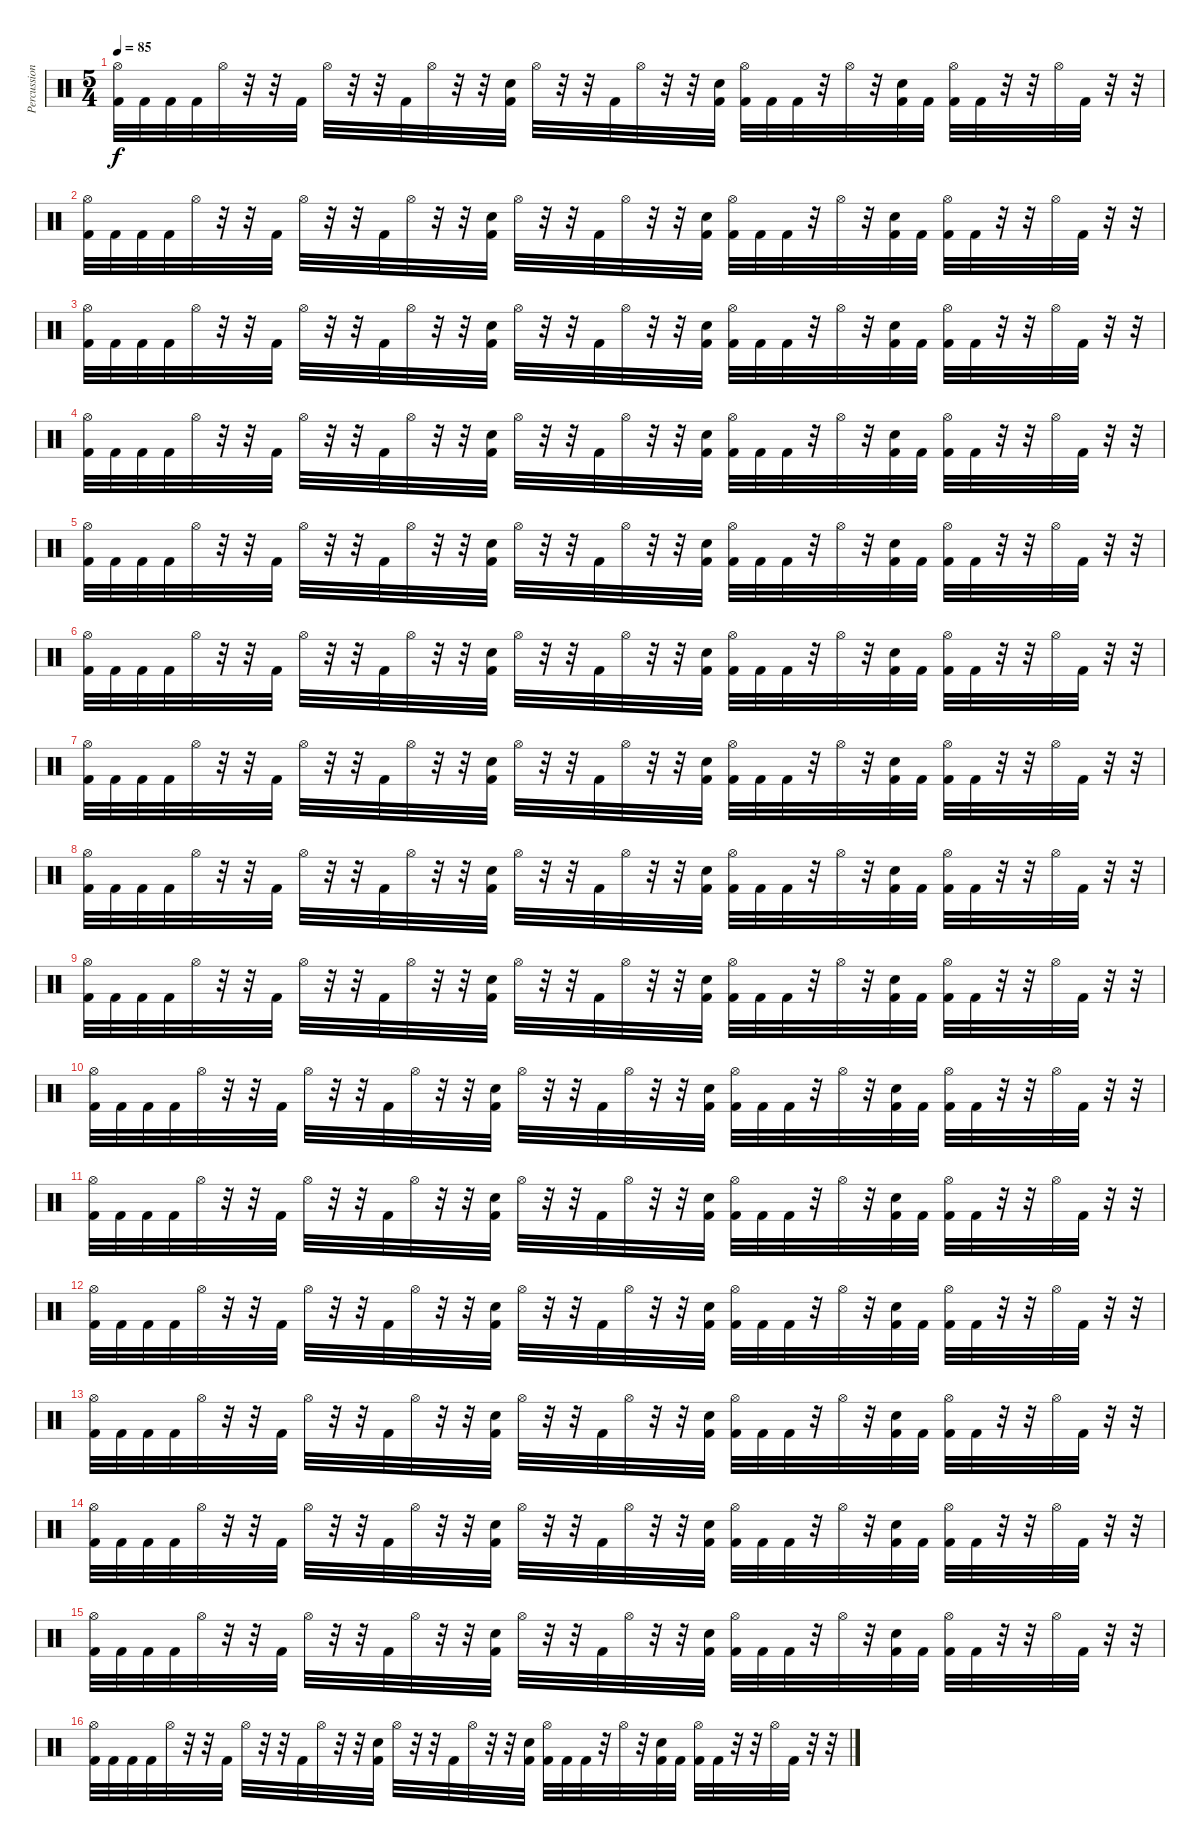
\track ("Percussion" "Percussion") {instrument percussion}
\staff {score}
\articulation defaults
\ts (5 4)
\tempo 85
\clef neutral
\ks c
("Hi-Hat (open)" "Kick (hit) 2").32{dy f} "Kick (hit) 2".32 "Kick (hit) 2".32 "Kick (hit) 2".32 "Hi-Hat (open)".32 r.32 r.32 "Kick (hit) 2".32 "Hi-Hat (open)".32 r.32 r.32 "Kick (hit) 2".32 "Hi-Hat (open)".32 r.32 r.32 ("Electric Snare (hit)" "Kick (hit) 2").32 "Hi-Hat (open)".32 r.32 r.32 "Kick (hit) 2".32 "Hi-Hat (open)".32 r.32 r.32 ("Electric Snare (hit)" "Kick (hit) 2").32 ("Hi-Hat (open)" "Kick (hit) 2").32 "Kick (hit) 2".32 "Kick (hit) 2".32 r.32 "Hi-Hat (open)".32 r.32 ("Electric Snare (hit)" "Kick (hit) 2").32 "Kick (hit) 2".32 ("Hi-Hat (open)" "Kick (hit) 2").32 "Kick (hit) 2".32 r.32 r.32 "Hi-Hat (open)".32 "Kick (hit) 2".32 r.32 r.32 |
("Hi-Hat (open)" "Kick (hit) 2").32 "Kick (hit) 2".32 "Kick (hit) 2".32 "Kick (hit) 2".32 "Hi-Hat (open)".32 r.32 r.32 "Kick (hit) 2".32 "Hi-Hat (open)".32 r.32 r.32 "Kick (hit) 2".32 "Hi-Hat (open)".32 r.32 r.32 ("Electric Snare (hit)" "Kick (hit) 2").32 "Hi-Hat (open)".32 r.32 r.32 "Kick (hit) 2".32 "Hi-Hat (open)".32 r.32 r.32 ("Electric Snare (hit)" "Kick (hit) 2").32 ("Hi-Hat (open)" "Kick (hit) 2").32 "Kick (hit) 2".32 "Kick (hit) 2".32 r.32 "Hi-Hat (open)".32 r.32 ("Electric Snare (hit)" "Kick (hit) 2").32 "Kick (hit) 2".32 ("Hi-Hat (open)" "Kick (hit) 2").32 "Kick (hit) 2".32 r.32 r.32 "Hi-Hat (open)".32 "Kick (hit) 2".32 r.32 r.32 |
("Hi-Hat (open)" "Kick (hit) 2").32 "Kick (hit) 2".32 "Kick (hit) 2".32 "Kick (hit) 2".32 "Hi-Hat (open)".32 r.32 r.32 "Kick (hit) 2".32 "Hi-Hat (open)".32 r.32 r.32 "Kick (hit) 2".32 "Hi-Hat (open)".32 r.32 r.32 ("Electric Snare (hit)" "Kick (hit) 2").32 "Hi-Hat (open)".32 r.32 r.32 "Kick (hit) 2".32 "Hi-Hat (open)".32 r.32 r.32 ("Electric Snare (hit)" "Kick (hit) 2").32 ("Hi-Hat (open)" "Kick (hit) 2").32 "Kick (hit) 2".32 "Kick (hit) 2".32 r.32 "Hi-Hat (open)".32 r.32 ("Electric Snare (hit)" "Kick (hit) 2").32 "Kick (hit) 2".32 ("Hi-Hat (open)" "Kick (hit) 2").32 "Kick (hit) 2".32 r.32 r.32 "Hi-Hat (open)".32 "Kick (hit) 2".32 r.32 r.32 |
("Hi-Hat (open)" "Kick (hit) 2").32 "Kick (hit) 2".32 "Kick (hit) 2".32 "Kick (hit) 2".32 "Hi-Hat (open)".32 r.32 r.32 "Kick (hit) 2".32 "Hi-Hat (open)".32 r.32 r.32 "Kick (hit) 2".32 "Hi-Hat (open)".32 r.32 r.32 ("Electric Snare (hit)" "Kick (hit) 2").32 "Hi-Hat (open)".32 r.32 r.32 "Kick (hit) 2".32 "Hi-Hat (open)".32 r.32 r.32 ("Electric Snare (hit)" "Kick (hit) 2").32 ("Hi-Hat (open)" "Kick (hit) 2").32 "Kick (hit) 2".32 "Kick (hit) 2".32 r.32 "Hi-Hat (open)".32 r.32 ("Electric Snare (hit)" "Kick (hit) 2").32 "Kick (hit) 2".32 ("Hi-Hat (open)" "Kick (hit) 2").32 "Kick (hit) 2".32 r.32 r.32 "Hi-Hat (open)".32 "Kick (hit) 2".32 r.32 r.32 |
("Hi-Hat (open)" "Kick (hit) 2").32 "Kick (hit) 2".32 "Kick (hit) 2".32 "Kick (hit) 2".32 "Hi-Hat (open)".32 r.32 r.32 "Kick (hit) 2".32 "Hi-Hat (open)".32 r.32 r.32 "Kick (hit) 2".32 "Hi-Hat (open)".32 r.32 r.32 ("Electric Snare (hit)" "Kick (hit) 2").32 "Hi-Hat (open)".32 r.32 r.32 "Kick (hit) 2".32 "Hi-Hat (open)".32 r.32 r.32 ("Electric Snare (hit)" "Kick (hit) 2").32 ("Hi-Hat (open)" "Kick (hit) 2").32 "Kick (hit) 2".32 "Kick (hit) 2".32 r.32 "Hi-Hat (open)".32 r.32 ("Electric Snare (hit)" "Kick (hit) 2").32 "Kick (hit) 2".32 ("Hi-Hat (open)" "Kick (hit) 2").32 "Kick (hit) 2".32 r.32 r.32 "Hi-Hat (open)".32 "Kick (hit) 2".32 r.32 r.32 |
("Hi-Hat (open)" "Kick (hit) 2").32 "Kick (hit) 2".32 "Kick (hit) 2".32 "Kick (hit) 2".32 "Hi-Hat (open)".32 r.32 r.32 "Kick (hit) 2".32 "Hi-Hat (open)".32 r.32 r.32 "Kick (hit) 2".32 "Hi-Hat (open)".32 r.32 r.32 ("Electric Snare (hit)" "Kick (hit) 2").32 "Hi-Hat (open)".32 r.32 r.32 "Kick (hit) 2".32 "Hi-Hat (open)".32 r.32 r.32 ("Electric Snare (hit)" "Kick (hit) 2").32 ("Hi-Hat (open)" "Kick (hit) 2").32 "Kick (hit) 2".32 "Kick (hit) 2".32 r.32 "Hi-Hat (open)".32 r.32 ("Electric Snare (hit)" "Kick (hit) 2").32 "Kick (hit) 2".32 ("Hi-Hat (open)" "Kick (hit) 2").32 "Kick (hit) 2".32 r.32 r.32 "Hi-Hat (open)".32 "Kick (hit) 2".32 r.32 r.32 |
("Hi-Hat (open)" "Kick (hit) 2").32 "Kick (hit) 2".32 "Kick (hit) 2".32 "Kick (hit) 2".32 "Hi-Hat (open)".32 r.32 r.32 "Kick (hit) 2".32 "Hi-Hat (open)".32 r.32 r.32 "Kick (hit) 2".32 "Hi-Hat (open)".32 r.32 r.32 ("Electric Snare (hit)" "Kick (hit) 2").32 "Hi-Hat (open)".32 r.32 r.32 "Kick (hit) 2".32 "Hi-Hat (open)".32 r.32 r.32 ("Electric Snare (hit)" "Kick (hit) 2").32 ("Hi-Hat (open)" "Kick (hit) 2").32 "Kick (hit) 2".32 "Kick (hit) 2".32 r.32 "Hi-Hat (open)".32 r.32 ("Electric Snare (hit)" "Kick (hit) 2").32 "Kick (hit) 2".32 ("Hi-Hat (open)" "Kick (hit) 2").32 "Kick (hit) 2".32 r.32 r.32 "Hi-Hat (open)".32 "Kick (hit) 2".32 r.32 r.32 |
("Hi-Hat (open)" "Kick (hit) 2").32 "Kick (hit) 2".32 "Kick (hit) 2".32 "Kick (hit) 2".32 "Hi-Hat (open)".32 r.32 r.32 "Kick (hit) 2".32 "Hi-Hat (open)".32 r.32 r.32 "Kick (hit) 2".32 "Hi-Hat (open)".32 r.32 r.32 ("Electric Snare (hit)" "Kick (hit) 2").32 "Hi-Hat (open)".32 r.32 r.32 "Kick (hit) 2".32 "Hi-Hat (open)".32 r.32 r.32 ("Electric Snare (hit)" "Kick (hit) 2").32 ("Hi-Hat (open)" "Kick (hit) 2").32 "Kick (hit) 2".32 "Kick (hit) 2".32 r.32 "Hi-Hat (open)".32 r.32 ("Electric Snare (hit)" "Kick (hit) 2").32 "Kick (hit) 2".32 ("Hi-Hat (open)" "Kick (hit) 2").32 "Kick (hit) 2".32 r.32 r.32 "Hi-Hat (open)".32 "Kick (hit) 2".32 r.32 r.32 |
("Hi-Hat (open)" "Kick (hit) 2").32 "Kick (hit) 2".32 "Kick (hit) 2".32 "Kick (hit) 2".32 "Hi-Hat (open)".32 r.32 r.32 "Kick (hit) 2".32 "Hi-Hat (open)".32 r.32 r.32 "Kick (hit) 2".32 "Hi-Hat (open)".32 r.32 r.32 ("Electric Snare (hit)" "Kick (hit) 2").32 "Hi-Hat (open)".32 r.32 r.32 "Kick (hit) 2".32 "Hi-Hat (open)".32 r.32 r.32 ("Electric Snare (hit)" "Kick (hit) 2").32 ("Hi-Hat (open)" "Kick (hit) 2").32 "Kick (hit) 2".32 "Kick (hit) 2".32 r.32 "Hi-Hat (open)".32 r.32 ("Electric Snare (hit)" "Kick (hit) 2").32 "Kick (hit) 2".32 ("Hi-Hat (open)" "Kick (hit) 2").32 "Kick (hit) 2".32 r.32 r.32 "Hi-Hat (open)".32 "Kick (hit) 2".32 r.32 r.32 |
("Hi-Hat (open)" "Kick (hit) 2").32 "Kick (hit) 2".32 "Kick (hit) 2".32 "Kick (hit) 2".32 "Hi-Hat (open)".32 r.32 r.32 "Kick (hit) 2".32 "Hi-Hat (open)".32 r.32 r.32 "Kick (hit) 2".32 "Hi-Hat (open)".32 r.32 r.32 ("Electric Snare (hit)" "Kick (hit) 2").32 "Hi-Hat (open)".32 r.32 r.32 "Kick (hit) 2".32 "Hi-Hat (open)".32 r.32 r.32 ("Electric Snare (hit)" "Kick (hit) 2").32 ("Hi-Hat (open)" "Kick (hit) 2").32 "Kick (hit) 2".32 "Kick (hit) 2".32 r.32 "Hi-Hat (open)".32 r.32 ("Electric Snare (hit)" "Kick (hit) 2").32 "Kick (hit) 2".32 ("Hi-Hat (open)" "Kick (hit) 2").32 "Kick (hit) 2".32 r.32 r.32 "Hi-Hat (open)".32 "Kick (hit) 2".32 r.32 r.32 |
("Hi-Hat (open)" "Kick (hit) 2").32 "Kick (hit) 2".32 "Kick (hit) 2".32 "Kick (hit) 2".32 "Hi-Hat (open)".32 r.32 r.32 "Kick (hit) 2".32 "Hi-Hat (open)".32 r.32 r.32 "Kick (hit) 2".32 "Hi-Hat (open)".32 r.32 r.32 ("Electric Snare (hit)" "Kick (hit) 2").32 "Hi-Hat (open)".32 r.32 r.32 "Kick (hit) 2".32 "Hi-Hat (open)".32 r.32 r.32 ("Electric Snare (hit)" "Kick (hit) 2").32 ("Hi-Hat (open)" "Kick (hit) 2").32 "Kick (hit) 2".32 "Kick (hit) 2".32 r.32 "Hi-Hat (open)".32 r.32 ("Electric Snare (hit)" "Kick (hit) 2").32 "Kick (hit) 2".32 ("Hi-Hat (open)" "Kick (hit) 2").32 "Kick (hit) 2".32 r.32 r.32 "Hi-Hat (open)".32 "Kick (hit) 2".32 r.32 r.32 |
("Hi-Hat (open)" "Kick (hit) 2").32 "Kick (hit) 2".32 "Kick (hit) 2".32 "Kick (hit) 2".32 "Hi-Hat (open)".32 r.32 r.32 "Kick (hit) 2".32 "Hi-Hat (open)".32 r.32 r.32 "Kick (hit) 2".32 "Hi-Hat (open)".32 r.32 r.32 ("Electric Snare (hit)" "Kick (hit) 2").32 "Hi-Hat (open)".32 r.32 r.32 "Kick (hit) 2".32 "Hi-Hat (open)".32 r.32 r.32 ("Electric Snare (hit)" "Kick (hit) 2").32 ("Hi-Hat (open)" "Kick (hit) 2").32 "Kick (hit) 2".32 "Kick (hit) 2".32 r.32 "Hi-Hat (open)".32 r.32 ("Electric Snare (hit)" "Kick (hit) 2").32 "Kick (hit) 2".32 ("Hi-Hat (open)" "Kick (hit) 2").32 "Kick (hit) 2".32 r.32 r.32 "Hi-Hat (open)".32 "Kick (hit) 2".32 r.32 r.32 |
("Hi-Hat (open)" "Kick (hit) 2").32 "Kick (hit) 2".32 "Kick (hit) 2".32 "Kick (hit) 2".32 "Hi-Hat (open)".32 r.32 r.32 "Kick (hit) 2".32 "Hi-Hat (open)".32 r.32 r.32 "Kick (hit) 2".32 "Hi-Hat (open)".32 r.32 r.32 ("Electric Snare (hit)" "Kick (hit) 2").32 "Hi-Hat (open)".32 r.32 r.32 "Kick (hit) 2".32 "Hi-Hat (open)".32 r.32 r.32 ("Electric Snare (hit)" "Kick (hit) 2").32 ("Hi-Hat (open)" "Kick (hit) 2").32 "Kick (hit) 2".32 "Kick (hit) 2".32 r.32 "Hi-Hat (open)".32 r.32 ("Electric Snare (hit)" "Kick (hit) 2").32 "Kick (hit) 2".32 ("Hi-Hat (open)" "Kick (hit) 2").32 "Kick (hit) 2".32 r.32 r.32 "Hi-Hat (open)".32 "Kick (hit) 2".32 r.32 r.32 |
("Hi-Hat (open)" "Kick (hit) 2").32{volume 0} "Kick (hit) 2".32 "Kick (hit) 2".32 "Kick (hit) 2".32 "Hi-Hat (open)".32 r.32 r.32 "Kick (hit) 2".32 "Hi-Hat (open)".32 r.32 r.32 "Kick (hit) 2".32 "Hi-Hat (open)".32 r.32 r.32 ("Electric Snare (hit)" "Kick (hit) 2").32 "Hi-Hat (open)".32 r.32 r.32 "Kick (hit) 2".32 "Hi-Hat (open)".32 r.32 r.32 ("Electric Snare (hit)" "Kick (hit) 2").32 ("Hi-Hat (open)" "Kick (hit) 2").32 "Kick (hit) 2".32 "Kick (hit) 2".32 r.32 "Hi-Hat (open)".32 r.32 ("Electric Snare (hit)" "Kick (hit) 2").32 "Kick (hit) 2".32 ("Hi-Hat (open)" "Kick (hit) 2").32 "Kick (hit) 2".32 r.32 r.32 "Hi-Hat (open)".32 "Kick (hit) 2".32 r.32 r.32 |
("Hi-Hat (open)" "Kick (hit) 2").32 "Kick (hit) 2".32 "Kick (hit) 2".32 "Kick (hit) 2".32 "Hi-Hat (open)".32 r.32 r.32 "Kick (hit) 2".32 "Hi-Hat (open)".32 r.32 r.32 "Kick (hit) 2".32 "Hi-Hat (open)".32 r.32 r.32 ("Electric Snare (hit)" "Kick (hit) 2").32 "Hi-Hat (open)".32 r.32 r.32 "Kick (hit) 2".32 "Hi-Hat (open)".32 r.32 r.32 ("Electric Snare (hit)" "Kick (hit) 2").32 ("Hi-Hat (open)" "Kick (hit) 2").32 "Kick (hit) 2".32 "Kick (hit) 2".32 r.32 "Hi-Hat (open)".32 r.32 ("Electric Snare (hit)" "Kick (hit) 2").32 "Kick (hit) 2".32 ("Hi-Hat (open)" "Kick (hit) 2").32 "Kick (hit) 2".32 r.32 r.32 "Hi-Hat (open)".32 "Kick (hit) 2".32 r.32 r.32 |
("Hi-Hat (open)" "Kick (hit) 2").32 "Kick (hit) 2".32 "Kick (hit) 2".32 "Kick (hit) 2".32 "Hi-Hat (open)".32 r.32 r.32 "Kick (hit) 2".32 "Hi-Hat (open)".32 r.32 r.32 "Kick (hit) 2".32 "Hi-Hat (open)".32 r.32 r.32 ("Electric Snare (hit)" "Kick (hit) 2").32 "Hi-Hat (open)".32 r.32 r.32 "Kick (hit) 2".32 "Hi-Hat (open)".32 r.32 r.32 ("Electric Snare (hit)" "Kick (hit) 2").32 ("Hi-Hat (open)" "Kick (hit) 2").32 "Kick (hit) 2".32 "Kick (hit) 2".32 r.32 "Hi-Hat (open)".32 r.32 ("Electric Snare (hit)" "Kick (hit) 2").32 "Kick (hit) 2".32 ("Hi-Hat (open)" "Kick (hit) 2").32 "Kick (hit) 2".32 r.32 r.32 "Hi-Hat (open)".32 "Kick (hit) 2".32 r.32 r.32
